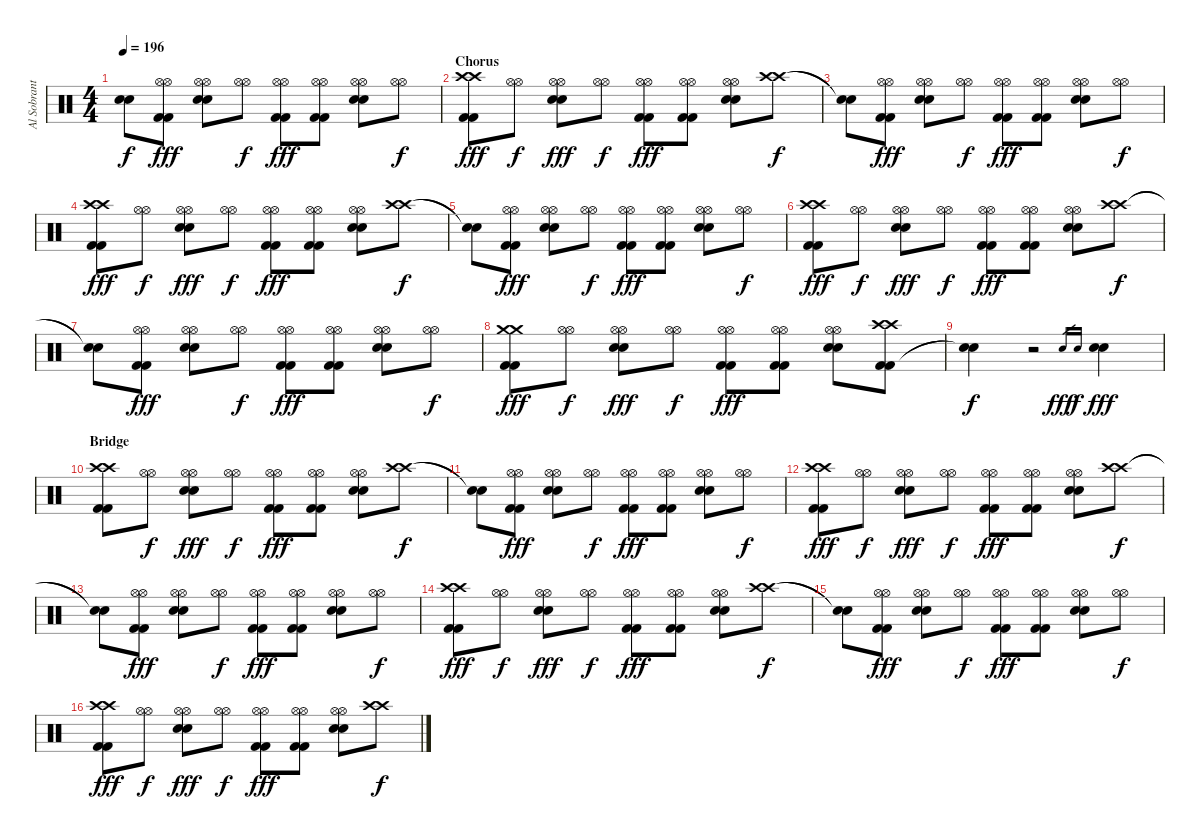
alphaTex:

\track ("Al Sobrante (Drums)" "Al Sobrant") {instrument percussion}
\staff {score}
\articulation defaults
\ts (4 4)
\tempo 196
\clef neutral
\ks c
("Snare (hit)"{t} "Snare (hit)"{t}).8{dy f} ("Kick (hit) 2" "Kick (hit) 2" "Hi-Hat (open)" "Hi-Hat (open)").8{dy fff} ("Electric Snare (hit)" "Electric Snare (hit)" "Hi-Hat (open)" "Hi-Hat (open)").8 ("Hi-Hat (open)" "Hi-Hat (open)").8{dy f} ("Kick (hit) 2" "Kick (hit) 2" "Hi-Hat (open)" "Hi-Hat (open)").8{dy fff} ("Kick (hit) 2" "Kick (hit) 2" "Hi-Hat (open)" "Hi-Hat (open)").8 ("Electric Snare (hit)" "Electric Snare (hit)" "Hi-Hat (open)" "Hi-Hat (open)").8 ("Hi-Hat (open)" "Hi-Hat (open)").8{dy f} |
\section ("" "Chorus")
("Kick (hit) 2" "Kick (hit) 2" "Crash high (hit)" "Crash high (hit)").8{dy fff} ("Hi-Hat (open)" "Hi-Hat (open)").8{dy f} ("Electric Snare (hit)" "Electric Snare (hit)" "Hi-Hat (open)" "Hi-Hat (open)").8{dy fff} ("Hi-Hat (open)" "Hi-Hat (open)").8{dy f} ("Kick (hit) 2" "Kick (hit) 2" "Hi-Hat (open)" "Hi-Hat (open)").8{dy fff} ("Kick (hit) 2" "Kick (hit) 2" "Hi-Hat (open)" "Hi-Hat (open)").8 ("Electric Snare (hit)" "Electric Snare (hit)" "Hi-Hat (open)" "Hi-Hat (open)").8 ("Crash high (hit)" "Crash high (hit)").8{dy f} |
("Snare (hit)"{t} "Snare (hit)"{t}).8 ("Kick (hit) 2" "Kick (hit) 2" "Hi-Hat (open)" "Hi-Hat (open)").8{dy fff} ("Electric Snare (hit)" "Electric Snare (hit)" "Hi-Hat (open)" "Hi-Hat (open)").8 ("Hi-Hat (open)" "Hi-Hat (open)").8{dy f} ("Kick (hit) 2" "Kick (hit) 2" "Hi-Hat (open)" "Hi-Hat (open)").8{dy fff} ("Kick (hit) 2" "Kick (hit) 2" "Hi-Hat (open)" "Hi-Hat (open)").8 ("Electric Snare (hit)" "Electric Snare (hit)" "Hi-Hat (open)" "Hi-Hat (open)").8 ("Hi-Hat (open)" "Hi-Hat (open)").8{dy f} |
("Kick (hit) 2" "Kick (hit) 2" "Crash high (hit)" "Crash high (hit)").8{dy fff} ("Hi-Hat (open)" "Hi-Hat (open)").8{dy f} ("Electric Snare (hit)" "Electric Snare (hit)" "Hi-Hat (open)" "Hi-Hat (open)").8{dy fff} ("Hi-Hat (open)" "Hi-Hat (open)").8{dy f} ("Kick (hit) 2" "Kick (hit) 2" "Hi-Hat (open)" "Hi-Hat (open)").8{dy fff} ("Kick (hit) 2" "Kick (hit) 2" "Hi-Hat (open)" "Hi-Hat (open)").8 ("Electric Snare (hit)" "Electric Snare (hit)" "Hi-Hat (open)" "Hi-Hat (open)").8 ("Crash high (hit)" "Crash high (hit)").8{dy f} |
("Snare (hit)"{t} "Snare (hit)"{t}).8 ("Kick (hit) 2" "Kick (hit) 2" "Hi-Hat (open)" "Hi-Hat (open)").8{dy fff} ("Electric Snare (hit)" "Electric Snare (hit)" "Hi-Hat (open)" "Hi-Hat (open)").8 ("Hi-Hat (open)" "Hi-Hat (open)").8{dy f} ("Kick (hit) 2" "Kick (hit) 2" "Hi-Hat (open)" "Hi-Hat (open)").8{dy fff} ("Kick (hit) 2" "Kick (hit) 2" "Hi-Hat (open)" "Hi-Hat (open)").8 ("Electric Snare (hit)" "Electric Snare (hit)" "Hi-Hat (open)" "Hi-Hat (open)").8 ("Hi-Hat (open)" "Hi-Hat (open)").8{dy f} |
("Kick (hit) 2" "Kick (hit) 2" "Crash high (hit)" "Crash high (hit)").8{dy fff} ("Hi-Hat (open)" "Hi-Hat (open)").8{dy f} ("Electric Snare (hit)" "Electric Snare (hit)" "Hi-Hat (open)" "Hi-Hat (open)").8{dy fff} ("Hi-Hat (open)" "Hi-Hat (open)").8{dy f} ("Kick (hit) 2" "Kick (hit) 2" "Hi-Hat (open)" "Hi-Hat (open)").8{dy fff} ("Kick (hit) 2" "Kick (hit) 2" "Hi-Hat (open)" "Hi-Hat (open)").8 ("Electric Snare (hit)" "Electric Snare (hit)" "Hi-Hat (open)" "Hi-Hat (open)").8 ("Crash high (hit)" "Crash high (hit)").8{dy f} |
("Snare (hit)"{t} "Snare (hit)"{t}).8 ("Kick (hit) 2" "Kick (hit) 2" "Hi-Hat (open)" "Hi-Hat (open)").8{dy fff} ("Electric Snare (hit)" "Electric Snare (hit)" "Hi-Hat (open)" "Hi-Hat (open)").8 ("Hi-Hat (open)" "Hi-Hat (open)").8{dy f} ("Kick (hit) 2" "Kick (hit) 2" "Hi-Hat (open)" "Hi-Hat (open)").8{dy fff} ("Kick (hit) 2" "Kick (hit) 2" "Hi-Hat (open)" "Hi-Hat (open)").8 ("Electric Snare (hit)" "Electric Snare (hit)" "Hi-Hat (open)" "Hi-Hat (open)").8 ("Hi-Hat (open)" "Hi-Hat (open)").8{dy f} |
("Kick (hit) 2" "Kick (hit) 2" "Crash medium (hit)" "Crash medium (hit)").8{dy fff} ("Hi-Hat (open)" "Hi-Hat (open)").8{dy f} ("Electric Snare (hit)" "Electric Snare (hit)" "Hi-Hat (open)" "Hi-Hat (open)").8{dy fff} ("Hi-Hat (open)" "Hi-Hat (open)").8{dy f} ("Kick (hit) 2" "Kick (hit) 2" "Hi-Hat (open)" "Hi-Hat (open)").8{dy fff} ("Kick (hit) 2" "Kick (hit) 2" "Hi-Hat (open)" "Hi-Hat (open)").8 ("Electric Snare (hit)" "Electric Snare (hit)" "Hi-Hat (open)" "Hi-Hat (open)").8 ("Kick (hit) 2" "Kick (hit) 2" "Crash high (hit)" "Crash high (hit)").8 |
("Snare (hit)"{t} "Snare (hit)"{t}).4{dy f} r.2 "Electric Snare (hit)".16{gr dy fff} "Electric Snare (hit)".16{gr dy f} ("Electric Snare (hit)" "Electric Snare (hit)").4{dy fff} |
\section ("" "Bridge")
("Kick (hit) 2" "Kick (hit) 2" "Crash high (hit)" "Crash high (hit)").8 ("Hi-Hat (open)" "Hi-Hat (open)").8{dy f} ("Electric Snare (hit)" "Electric Snare (hit)" "Hi-Hat (open)" "Hi-Hat (open)").8{dy fff} ("Hi-Hat (open)" "Hi-Hat (open)").8{dy f} ("Kick (hit) 2" "Kick (hit) 2" "Hi-Hat (open)" "Hi-Hat (open)").8{dy fff} ("Kick (hit) 2" "Kick (hit) 2" "Hi-Hat (open)" "Hi-Hat (open)").8 ("Electric Snare (hit)" "Electric Snare (hit)" "Hi-Hat (open)" "Hi-Hat (open)").8 ("Crash high (hit)" "Crash high (hit)").8{dy f} |
("Snare (hit)"{t} "Snare (hit)"{t}).8 ("Kick (hit) 2" "Kick (hit) 2" "Hi-Hat (open)" "Hi-Hat (open)").8{dy fff} ("Electric Snare (hit)" "Electric Snare (hit)" "Hi-Hat (open)" "Hi-Hat (open)").8 ("Hi-Hat (open)" "Hi-Hat (open)").8{dy f} ("Kick (hit) 2" "Kick (hit) 2" "Hi-Hat (open)" "Hi-Hat (open)").8{dy fff} ("Kick (hit) 2" "Kick (hit) 2" "Hi-Hat (open)" "Hi-Hat (open)").8 ("Electric Snare (hit)" "Electric Snare (hit)" "Hi-Hat (open)" "Hi-Hat (open)").8 ("Hi-Hat (open)" "Hi-Hat (open)").8{dy f} |
("Kick (hit) 2" "Kick (hit) 2" "Crash high (hit)" "Crash high (hit)").8{dy fff} ("Hi-Hat (open)" "Hi-Hat (open)").8{dy f} ("Electric Snare (hit)" "Electric Snare (hit)" "Hi-Hat (open)" "Hi-Hat (open)").8{dy fff} ("Hi-Hat (open)" "Hi-Hat (open)").8{dy f} ("Kick (hit) 2" "Kick (hit) 2" "Hi-Hat (open)" "Hi-Hat (open)").8{dy fff} ("Kick (hit) 2" "Kick (hit) 2" "Hi-Hat (open)" "Hi-Hat (open)").8 ("Electric Snare (hit)" "Electric Snare (hit)" "Hi-Hat (open)" "Hi-Hat (open)").8 ("Crash high (hit)" "Crash high (hit)").8{dy f} |
("Snare (hit)"{t} "Snare (hit)"{t}).8 ("Kick (hit) 2" "Kick (hit) 2" "Hi-Hat (open)" "Hi-Hat (open)").8{dy fff} ("Electric Snare (hit)" "Electric Snare (hit)" "Hi-Hat (open)" "Hi-Hat (open)").8 ("Hi-Hat (open)" "Hi-Hat (open)").8{dy f} ("Kick (hit) 2" "Kick (hit) 2" "Hi-Hat (open)" "Hi-Hat (open)").8{dy fff} ("Kick (hit) 2" "Kick (hit) 2" "Hi-Hat (open)" "Hi-Hat (open)").8 ("Electric Snare (hit)" "Electric Snare (hit)" "Hi-Hat (open)" "Hi-Hat (open)").8 ("Hi-Hat (open)" "Hi-Hat (open)").8{dy f} |
("Kick (hit) 2" "Kick (hit) 2" "Crash high (hit)" "Crash high (hit)").8{dy fff} ("Hi-Hat (open)" "Hi-Hat (open)").8{dy f} ("Electric Snare (hit)" "Electric Snare (hit)" "Hi-Hat (open)" "Hi-Hat (open)").8{dy fff} ("Hi-Hat (open)" "Hi-Hat (open)").8{dy f} ("Kick (hit) 2" "Kick (hit) 2" "Hi-Hat (open)" "Hi-Hat (open)").8{dy fff} ("Kick (hit) 2" "Kick (hit) 2" "Hi-Hat (open)" "Hi-Hat (open)").8 ("Electric Snare (hit)" "Electric Snare (hit)" "Hi-Hat (open)" "Hi-Hat (open)").8 ("Crash high (hit)" "Crash high (hit)").8{dy f} |
("Snare (hit)"{t} "Snare (hit)"{t}).8 ("Kick (hit) 2" "Kick (hit) 2" "Hi-Hat (open)" "Hi-Hat (open)").8{dy fff} ("Electric Snare (hit)" "Electric Snare (hit)" "Hi-Hat (open)" "Hi-Hat (open)").8 ("Hi-Hat (open)" "Hi-Hat (open)").8{dy f} ("Kick (hit) 2" "Kick (hit) 2" "Hi-Hat (open)" "Hi-Hat (open)").8{dy fff} ("Kick (hit) 2" "Kick (hit) 2" "Hi-Hat (open)" "Hi-Hat (open)").8 ("Electric Snare (hit)" "Electric Snare (hit)" "Hi-Hat (open)" "Hi-Hat (open)").8 ("Hi-Hat (open)" "Hi-Hat (open)").8{dy f} |
("Kick (hit) 2" "Kick (hit) 2" "Crash high (hit)" "Crash high (hit)").8{dy fff} ("Hi-Hat (open)" "Hi-Hat (open)").8{dy f} ("Electric Snare (hit)" "Electric Snare (hit)" "Hi-Hat (open)" "Hi-Hat (open)").8{dy fff} ("Hi-Hat (open)" "Hi-Hat (open)").8{dy f} ("Kick (hit) 2" "Kick (hit) 2" "Hi-Hat (open)" "Hi-Hat (open)").8{dy fff} ("Kick (hit) 2" "Kick (hit) 2" "Hi-Hat (open)" "Hi-Hat (open)").8 ("Electric Snare (hit)" "Electric Snare (hit)" "Hi-Hat (open)" "Hi-Hat (open)").8 ("Crash high (hit)" "Crash high (hit)").8{dy f}
